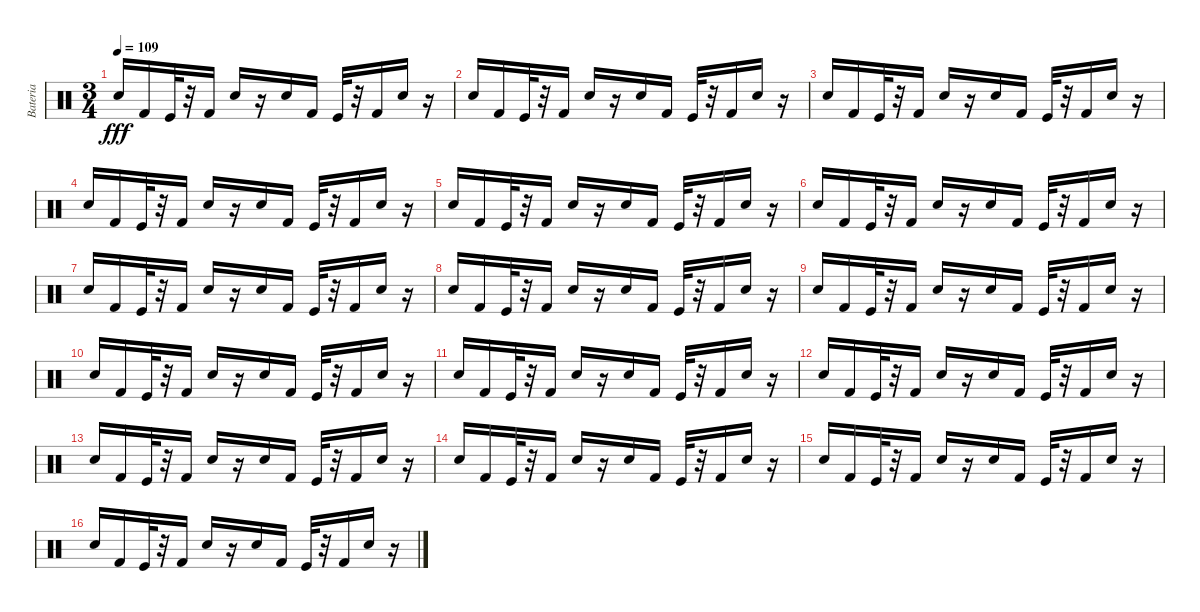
\track ("Bateria" "Bateria") {instrument percussion}
\staff {score}
\articulation defaults
\ts (3 4)
\tempo 109
\clef neutral
\ks c "Electric Snare (hit)".16{dy fff} "Kick (hit) 2".16 "Kick (hit)".32
r.32 "Kick (hit) 2".16 "Electric Snare (hit)".16 r.16 "Electric Snare (hit)".16 "Kick (hit) 2".16 "Kick (hit)".32 r.32 "Kick (hit) 2".16 "Electric Snare (hit)".16 r.16 |
"Electric Snare (hit)".16 "Kick (hit) 2".16 "Kick (hit)".32 r.32 "Kick (hit) 2".16 "Electric Snare (hit)".16 r.16 "Electric Snare (hit)".16 "Kick (hit) 2".16 "Kick (hit)".32 r.32 "Kick (hit) 2".16 "Electric Snare (hit)".16 r.16 |
"Electric Snare (hit)".16 "Kick (hit) 2".16 "Kick (hit)".32 r.32 "Kick (hit) 2".16 "Electric Snare (hit)".16 r.16 "Electric Snare (hit)".16 "Kick (hit) 2".16 "Kick (hit)".32 r.32 "Kick (hit) 2".16 "Electric Snare (hit)".16 r.16 |
"Electric Snare (hit)".16 "Kick (hit) 2".16 "Kick (hit)".32 r.32 "Kick (hit) 2".16 "Electric Snare (hit)".16 r.16 "Electric Snare (hit)".16 "Kick (hit) 2".16 "Kick (hit)".32 r.32 "Kick (hit) 2".16 "Electric Snare (hit)".16 r.16 |
"Electric Snare (hit)".16 "Kick (hit) 2".16 "Kick (hit)".32 r.32 "Kick (hit) 2".16 "Electric Snare (hit)".16 r.16 "Electric Snare (hit)".16 "Kick (hit) 2".16 "Kick (hit)".32 r.32 "Kick (hit) 2".16 "Electric Snare (hit)".16 r.16 |
"Electric Snare (hit)".16 "Kick (hit) 2".16 "Kick (hit)".32 r.32 "Kick (hit) 2".16 "Electric Snare (hit)".16 r.16 "Electric Snare (hit)".16 "Kick (hit) 2".16 "Kick (hit)".32 r.32 "Kick (hit) 2".16 "Electric Snare (hit)".16 r.16 |
"Electric Snare (hit)".16 "Kick (hit) 2".16 "Kick (hit)".32 r.32 "Kick (hit) 2".16 "Electric Snare (hit)".16 r.16 "Electric Snare (hit)".16 "Kick (hit) 2".16 "Kick (hit)".32 r.32 "Kick (hit) 2".16 "Electric Snare (hit)".16 r.16 |
"Electric Snare (hit)".16 "Kick (hit) 2".16 "Kick (hit)".32 r.32 "Kick (hit) 2".16 "Electric Snare (hit)".16 r.16 "Electric Snare (hit)".16 "Kick (hit) 2".16 "Kick (hit)".32 r.32 "Kick (hit) 2".16 "Electric Snare (hit)".16 r.16 |
"Electric Snare (hit)".16 "Kick (hit) 2".16 "Kick (hit)".32 r.32 "Kick (hit) 2".16 "Electric Snare (hit)".16 r.16 "Electric Snare (hit)".16 "Kick (hit) 2".16 "Kick (hit)".32 r.32 "Kick (hit) 2".16 "Electric Snare (hit)".16 r.16 |
"Electric Snare (hit)".16 "Kick (hit) 2".16 "Kick (hit)".32 r.32 "Kick (hit) 2".16 "Electric Snare (hit)".16 r.16 "Electric Snare (hit)".16 "Kick (hit) 2".16 "Kick (hit)".32 r.32 "Kick (hit) 2".16 "Electric Snare (hit)".16 r.16 |
"Electric Snare (hit)".16 "Kick (hit) 2".16 "Kick (hit)".32 r.32 "Kick (hit) 2".16 "Electric Snare (hit)".16 r.16 "Electric Snare (hit)".16 "Kick (hit) 2".16 "Kick (hit)".32 r.32 "Kick (hit) 2".16 "Electric Snare (hit)".16 r.16 |
"Electric Snare (hit)".16 "Kick (hit) 2".16 "Kick (hit)".32 r.32 "Kick (hit) 2".16 "Electric Snare (hit)".16 r.16 "Electric Snare (hit)".16 "Kick (hit) 2".16 "Kick (hit)".32 r.32 "Kick (hit) 2".16 "Electric Snare (hit)".16 r.16 |
"Electric Snare (hit)".16 "Kick (hit) 2".16 "Kick (hit)".32 r.32 "Kick (hit) 2".16 "Electric Snare (hit)".16 r.16 "Electric Snare (hit)".16 "Kick (hit) 2".16 "Kick (hit)".32 r.32 "Kick (hit) 2".16 "Electric Snare (hit)".16 r.16 |
"Electric Snare (hit)".16 "Kick (hit) 2".16 "Kick (hit)".32 r.32 "Kick (hit) 2".16 "Electric Snare (hit)".16 r.16 "Electric Snare (hit)".16 "Kick (hit) 2".16 "Kick (hit)".32 r.32 "Kick (hit) 2".16 "Electric Snare (hit)".16 r.16 |
"Electric Snare (hit)".16 "Kick (hit) 2".16 "Kick (hit)".32 r.32 "Kick (hit) 2".16 "Electric Snare (hit)".16 r.16 "Electric Snare (hit)".16 "Kick (hit) 2".16 "Kick (hit)".32 r.32 "Kick (hit) 2".16 "Electric Snare (hit)".16 r.16 |
"Electric Snare (hit)".16 "Kick (hit) 2".16 "Kick (hit)".32 r.32 "Kick (hit) 2".16 "Electric Snare (hit)".16 r.16 "Electric Snare (hit)".16 "Kick (hit) 2".16 "Kick (hit)".32 r.32 "Kick (hit) 2".16 "Electric Snare (hit)".16 r.16
